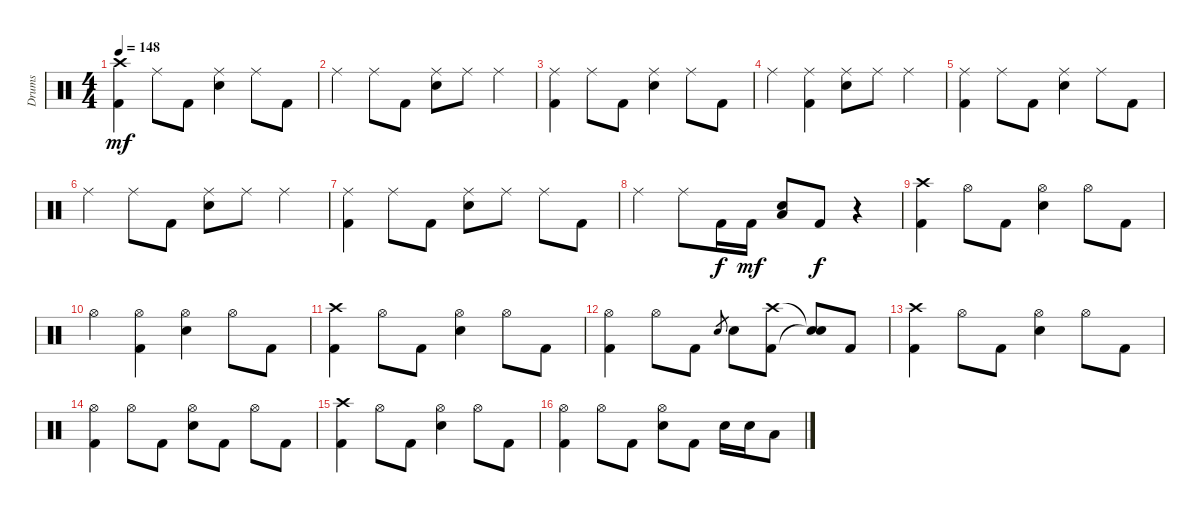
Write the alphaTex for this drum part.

\track ("Drums" "Drums") {instrument percussion}
\staff {score}
\articulation defaults
\ts (4 4)
\tempo 148
\clef neutral
\ks c
("Crash high (hit)" "Kick (hit) 2").4{dy mf} "Ride (middle)".8 "Kick (hit) 2".8 ("Ride (middle)" "Electric Snare (hit)").4 "Ride (middle)".8 "Kick (hit) 2".8 |
"Ride (middle)".4 "Ride (middle)".8 "Kick (hit) 2".8 ("Ride (middle)" "Electric Snare (hit)").8 "Ride (middle)".8 "Ride (middle)".4 |
("Ride (middle)" "Kick (hit) 2").4 "Ride (middle)".8 "Kick (hit) 2".8 ("Ride (middle)" "Electric Snare (hit)").4 "Ride (middle)".8 "Kick (hit) 2".8 |
"Ride (middle)".4 ("Ride (middle)" "Kick (hit) 2").4 ("Ride (middle)" "Electric Snare (hit)").8 "Ride (middle)".8 "Ride (middle)".4 |
("Ride (middle)" "Kick (hit) 2").4 "Ride (middle)".8 "Kick (hit) 2".8 ("Ride (middle)" "Electric Snare (hit)").4 "Ride (middle)".8 "Kick (hit) 2".8 |
"Ride (middle)".4 "Ride (middle)".8 "Kick (hit) 2".8 ("Ride (middle)" "Electric Snare (hit)").8 "Ride (middle)".8 "Ride (middle)".4 |
("Ride (middle)" "Kick (hit) 2").4 "Ride (middle)".8 "Kick (hit) 2".8 ("Ride (middle)" "Electric Snare (hit)").8 "Ride (middle)".8 "Ride (middle)".8 "Kick (hit) 2".8 |
"Ride (middle)".4 "Ride (middle)".8 "Kick (hit) 2".16{dy f} "Kick (hit) 2".16{dy mf} ("Electric Snare (hit)" "Low Floor Tom (hit)").8 "Kick (hit) 2".8{dy f} r.4 |
("Crash high (hit)" "Kick (hit) 2").4 "Hi-Hat (open)".8 "Kick (hit) 2".8 ("Hi-Hat (open)" "Electric Snare (hit)").4 "Hi-Hat (open)".8 "Kick (hit) 2".8 |
"Hi-Hat (open)".4 ("Hi-Hat (open)" "Kick (hit) 2").4 ("Hi-Hat (open)" "Electric Snare (hit)").4 "Hi-Hat (open)".8 "Kick (hit) 2".8 |
("Crash high (hit)" "Kick (hit) 2").4 "Hi-Hat (open)".8 "Kick (hit) 2".8 ("Hi-Hat (open)" "Electric Snare (hit)").4 "Hi-Hat (open)".8 "Kick (hit) 2".8 |
("Hi-Hat (open)" "Kick (hit) 2").4 "Hi-Hat (open)".8 "Kick (hit) 2".8 "Electric Snare (hit)".8{gr} "Electric Snare (hit)".8 ("Crash high (hit)" "Kick (hit) 2").8 ("Snare (hit)"{t} "Snare (hit)"{t}).8 "Kick (hit) 2".8 |
("Crash high (hit)" "Kick (hit) 2").4 "Hi-Hat (open)".8 "Kick (hit) 2".8 ("Hi-Hat (open)" "Electric Snare (hit)").4 "Hi-Hat (open)".8 "Kick (hit) 2".8 |
("Hi-Hat (open)" "Kick (hit) 2").4 "Hi-Hat (open)".8 "Kick (hit) 2".8 ("Hi-Hat (open)" "Electric Snare (hit)").8 "Kick (hit) 2".8 "Hi-Hat (open)".8 "Kick (hit) 2".8 |
("Crash high (hit)" "Kick (hit) 2").4 "Hi-Hat (open)".8 "Kick (hit) 2".8 ("Hi-Hat (open)" "Electric Snare (hit)").4 "Hi-Hat (open)".8 "Kick (hit) 2".8 |
("Hi-Hat (open)" "Kick (hit) 2").4 "Hi-Hat (open)".8 "Kick (hit) 2".8 ("Hi-Hat (open)" "Electric Snare (hit)").8 "Kick (hit) 2".8 "Electric Snare (hit)".16 "Electric Snare (hit)".16 "Low Tom (hit)".8
